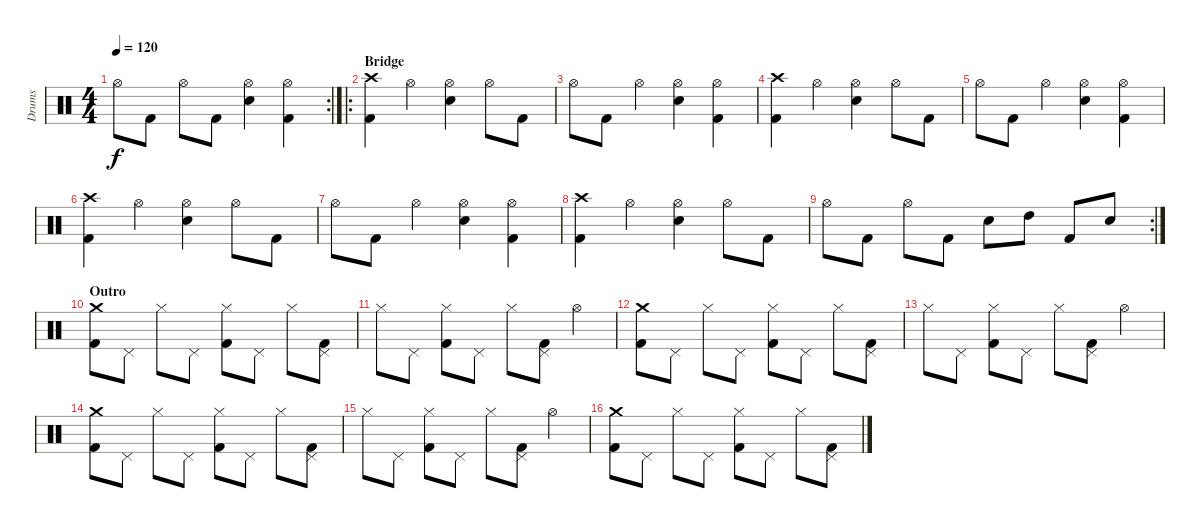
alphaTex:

\track ("Drums" "Drums") {instrument percussion}
\staff {score}
\articulation defaults
\rc 2
\ts (4 4)
\tempo 120
\clef neutral
\ks c "Hi-Hat (open)".8{dy f} "Kick (hit) 2".8 "Hi-Hat (open)".8 "Kick (hit) 2".8
("Hi-Hat (open)" "Electric Snare (hit)").4 ("Hi-Hat (open)" "Kick (hit) 2").4 |
\ro
\section ("" "Bridge")
("Crash high (hit)" "Kick (hit) 2").4 "Hi-Hat (open)".4 ("Hi-Hat (open)" "Electric Snare (hit)").4 "Hi-Hat (open)".8 "Kick (hit) 2".8 |
"Hi-Hat (open)".8 "Kick (hit) 2".8 "Hi-Hat (open)".4 ("Hi-Hat (open)" "Electric Snare (hit)").4 ("Hi-Hat (open)" "Kick (hit) 2").4 |
("Crash high (hit)" "Kick (hit) 2").4 "Hi-Hat (open)".4 ("Hi-Hat (open)" "Electric Snare (hit)").4 "Hi-Hat (open)".8 "Kick (hit) 2".8 |
"Hi-Hat (open)".8 "Kick (hit) 2".8 "Hi-Hat (open)".4 ("Hi-Hat (open)" "Electric Snare (hit)").4 ("Hi-Hat (open)" "Kick (hit) 2").4 |
("Crash high (hit)" "Kick (hit) 2").4 "Hi-Hat (open)".4 ("Hi-Hat (open)" "Electric Snare (hit)").4 "Hi-Hat (open)".8 "Kick (hit) 2".8 |
"Hi-Hat (open)".8 "Kick (hit) 2".8 "Hi-Hat (open)".4 ("Hi-Hat (open)" "Electric Snare (hit)").4 ("Hi-Hat (open)" "Kick (hit) 2").4 |
("Crash high (hit)" "Kick (hit) 2").4 "Hi-Hat (open)".4 ("Hi-Hat (open)" "Electric Snare (hit)").4 "Hi-Hat (open)".8 "Kick (hit) 2".8 |
\rc 2 "Hi-Hat (open)".8 "Kick (hit) 2".8 "Hi-Hat (open)".8 "Kick (hit) 2".8 "Electric Snare (hit)".8 "High Tom (hit)".8 "Kick (hit) 2".8 "Electric Snare (hit)".8
|
\section ("" "Outro")
("Crash medium (hit)" "Kick (hit) 2").8 "Pedal Hi-Hat (hit)".8 "Hi-Hat (closed)".8 "Pedal Hi-Hat (hit)".8 ("Hi-Hat (closed)" "Kick (hit) 2").8 "Pedal Hi-Hat (hit)".8 "Hi-Hat (closed)".8 ("Pedal Hi-Hat (hit)" "Kick (hit) 2").8 |
"Hi-Hat (closed)".8 "Pedal Hi-Hat (hit)".8 ("Hi-Hat (closed)" "Kick (hit) 2").8 "Pedal Hi-Hat (hit)".8 "Hi-Hat (closed)".8 ("Pedal Hi-Hat (hit)" "Kick (hit) 2").8 "Hi-Hat (open)".4 |
("Crash medium (hit)" "Kick (hit) 2").8 "Pedal Hi-Hat (hit)".8 "Hi-Hat (closed)".8 "Pedal Hi-Hat (hit)".8 ("Hi-Hat (closed)" "Kick (hit) 2").8 "Pedal Hi-Hat (hit)".8 "Hi-Hat (closed)".8 ("Pedal Hi-Hat (hit)" "Kick (hit) 2").8 |
"Hi-Hat (closed)".8 "Pedal Hi-Hat (hit)".8 ("Hi-Hat (closed)" "Kick (hit) 2").8 "Pedal Hi-Hat (hit)".8 "Hi-Hat (closed)".8 ("Pedal Hi-Hat (hit)" "Kick (hit) 2").8 "Hi-Hat (open)".4 |
("Crash medium (hit)" "Kick (hit) 2").8 "Pedal Hi-Hat (hit)".8 "Hi-Hat (closed)".8 "Pedal Hi-Hat (hit)".8 ("Hi-Hat (closed)" "Kick (hit) 2").8 "Pedal Hi-Hat (hit)".8 "Hi-Hat (closed)".8 ("Pedal Hi-Hat (hit)" "Kick (hit) 2").8 |
"Hi-Hat (closed)".8 "Pedal Hi-Hat (hit)".8 ("Hi-Hat (closed)" "Kick (hit) 2").8 "Pedal Hi-Hat (hit)".8 "Hi-Hat (closed)".8 ("Pedal Hi-Hat (hit)" "Kick (hit) 2").8 "Hi-Hat (open)".4 |
("Crash medium (hit)" "Kick (hit) 2").8 "Pedal Hi-Hat (hit)".8 "Hi-Hat (closed)".8 "Pedal Hi-Hat (hit)".8 ("Hi-Hat (closed)" "Kick (hit) 2").8 "Pedal Hi-Hat (hit)".8 "Hi-Hat (closed)".8 ("Pedal Hi-Hat (hit)" "Kick (hit) 2").8
